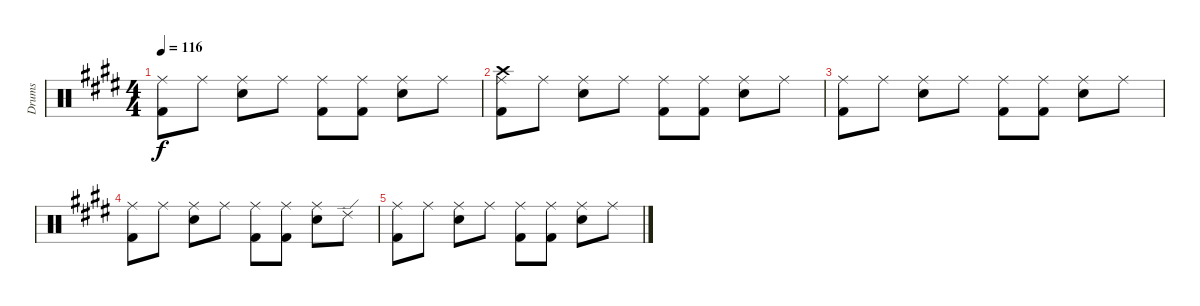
\track ("Drums" "Drums") {instrument percussion}
\staff {score}
\articulation defaults
\ts (4 4)
\tempo 116
\clef neutral
\ks c#minor
("Ride (middle)" "Kick (hit) 2").8{dy f} "Ride (middle)".8 ("Ride (middle)" "Snare (hit) 2").8 "Ride (middle)".8 ("Ride (middle)" "Kick (hit) 2").8 ("Ride (middle)" "Kick (hit) 2").8 ("Ride (middle)" "Snare (hit) 2").8 "Ride (middle)".8 |
("Ride (middle)" "Crash high (hit)" "Kick (hit) 2").8 "Ride (middle)".8 ("Ride (middle)" "Snare (hit) 2").8 "Ride (middle)".8 ("Ride (middle)" "Kick (hit) 2").8 ("Ride (middle)" "Kick (hit) 2").8 ("Ride (middle)" "Snare (hit) 2").8 "Ride (middle)".8 |
("Ride (middle)" "Kick (hit) 2").8 "Ride (middle)".8 ("Ride (middle)" "Snare (hit) 2").8 "Ride (middle)".8 ("Ride (middle)" "Kick (hit) 2").8 ("Ride (middle)" "Kick (hit) 2").8 ("Ride (middle)" "Snare (hit) 2").8 "Ride (middle)".8 |
("Ride (middle)" "Kick (hit) 2").8{volume 0} "Ride (middle)".8 ("Ride (middle)" "Snare (hit) 2").8 "Ride (middle)".8 ("Ride (middle)" "Kick (hit) 2").8 ("Ride (middle)" "Kick (hit) 2").8 ("Ride (middle)" "Snare (hit) 2").8 "Ride (edge) 2".8 |
("Ride (middle)" "Kick (hit) 2").8 "Ride (middle)".8 ("Ride (middle)" "Snare (hit) 2").8 "Ride (middle)".8 ("Ride (middle)" "Kick (hit) 2").8 ("Ride (middle)" "Kick (hit) 2").8 ("Ride (middle)" "Snare (hit) 2").8 "Ride (middle)".8
